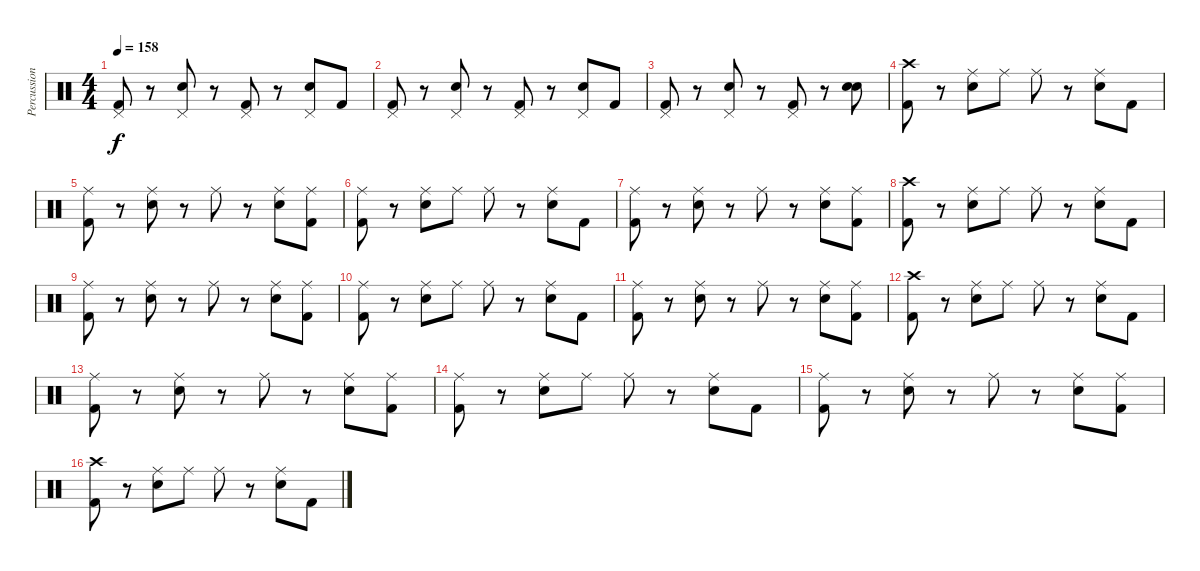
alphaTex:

\track ("Percussion" "Percussion") {instrument percussion bank 78}
\staff {score}
\articulation defaults
\ts (4 4)
\tempo 158
\clef neutral
\ks c
("Pedal Hi-Hat (hit)" "Kick (hit) 2").8{dy f} r.8 ("Pedal Hi-Hat (hit)" "Electric Snare (hit)").8 r.8 ("Pedal Hi-Hat (hit)" "Kick (hit) 2").8 r.8 ("Pedal Hi-Hat (hit)" "Electric Snare (hit)").8 "Kick (hit) 2".8 |
("Pedal Hi-Hat (hit)" "Kick (hit) 2").8 r.8 ("Pedal Hi-Hat (hit)" "Electric Snare (hit)").8 r.8 ("Pedal Hi-Hat (hit)" "Kick (hit) 2").8 r.8 ("Pedal Hi-Hat (hit)" "Electric Snare (hit)").8 "Kick (hit) 2".8 |
("Pedal Hi-Hat (hit)" "Kick (hit) 2").8 r.8 ("Pedal Hi-Hat (hit)" "Electric Snare (hit)").8 r.8 ("Pedal Hi-Hat (hit)" "Kick (hit) 2").8 r.8 ("Electric Snare (hit)" "Electric Snare (hit)").8 |
("Crash high (hit)" "Kick (hit) 2").8 r.8 ("Ride (middle)" "Electric Snare (hit)").8 "Ride (middle)".8 "Ride (middle)".8 r.8 ("Ride (middle)" "Electric Snare (hit)").8 "Kick (hit) 2".8 |
("Ride (middle)" "Kick (hit) 2").8 r.8 ("Ride (middle)" "Electric Snare (hit)").8 r.8 "Ride (middle)".8 r.8 ("Ride (middle)" "Electric Snare (hit)").8 ("Ride (middle)" "Kick (hit) 2").8 |
("Ride (middle)" "Kick (hit) 2").8 r.8 ("Ride (middle)" "Electric Snare (hit)").8 "Ride (middle)".8 "Ride (middle)".8 r.8 ("Ride (middle)" "Electric Snare (hit)").8 "Kick (hit) 2".8 |
("Ride (middle)" "Kick (hit) 2").8 r.8 ("Ride (middle)" "Electric Snare (hit)").8 r.8 "Ride (middle)".8 r.8 ("Ride (middle)" "Electric Snare (hit)").8 ("Ride (middle)" "Kick (hit) 2").8 |
("Crash high (hit)" "Kick (hit) 2").8 r.8 ("Ride (middle)" "Electric Snare (hit)").8 "Ride (middle)".8 "Ride (middle)".8 r.8 ("Ride (middle)" "Electric Snare (hit)").8 "Kick (hit) 2".8 |
("Ride (middle)" "Kick (hit) 2").8 r.8 ("Ride (middle)" "Electric Snare (hit)").8 r.8 "Ride (middle)".8 r.8 ("Ride (middle)" "Electric Snare (hit)").8 ("Ride (middle)" "Kick (hit) 2").8 |
("Ride (middle)" "Kick (hit) 2").8 r.8 ("Ride (middle)" "Electric Snare (hit)").8 "Ride (middle)".8 "Ride (middle)".8 r.8 ("Ride (middle)" "Electric Snare (hit)").8 "Kick (hit) 2".8 |
("Ride (middle)" "Kick (hit) 2").8 r.8 ("Ride (middle)" "Electric Snare (hit)").8 r.8 "Ride (middle)".8 r.8 ("Ride (middle)" "Electric Snare (hit)").8 ("Ride (middle)" "Kick (hit) 2").8 |
("Crash high (hit)" "Kick (hit) 2").8 r.8 ("Ride (middle)" "Electric Snare (hit)").8 "Ride (middle)".8 "Ride (middle)".8 r.8 ("Ride (middle)" "Electric Snare (hit)").8 "Kick (hit) 2".8 |
("Ride (middle)" "Kick (hit) 2").8 r.8 ("Ride (middle)" "Electric Snare (hit)").8 r.8 "Ride (middle)".8 r.8 ("Ride (middle)" "Electric Snare (hit)").8 ("Ride (middle)" "Kick (hit) 2").8 |
("Ride (middle)" "Kick (hit) 2").8 r.8 ("Ride (middle)" "Electric Snare (hit)").8 "Ride (middle)".8 "Ride (middle)".8 r.8 ("Ride (middle)" "Electric Snare (hit)").8 "Kick (hit) 2".8 |
("Ride (middle)" "Kick (hit) 2").8 r.8 ("Ride (middle)" "Electric Snare (hit)").8 r.8 "Ride (middle)".8 r.8 ("Ride (middle)" "Electric Snare (hit)").8 ("Ride (middle)" "Kick (hit) 2").8 |
("Crash high (hit)" "Kick (hit) 2").8 r.8 ("Ride (middle)" "Electric Snare (hit)").8 "Ride (middle)".8 "Ride (middle)".8 r.8 ("Ride (middle)" "Electric Snare (hit)").8 "Kick (hit) 2".8
